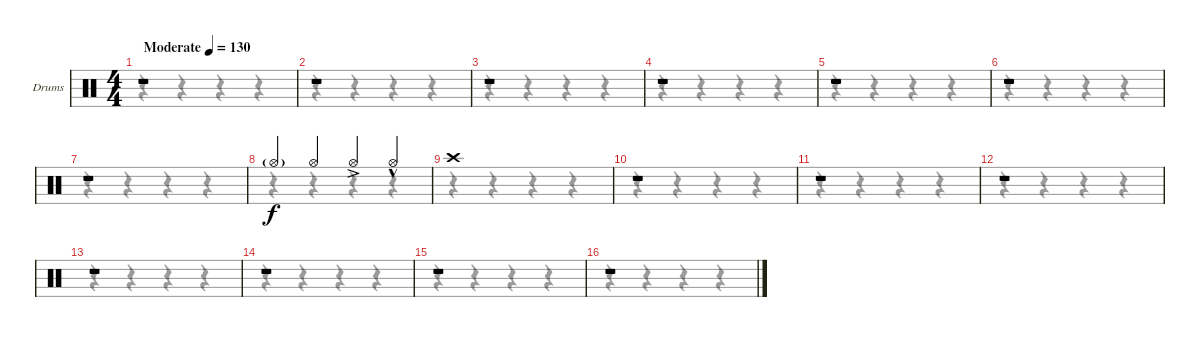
\bracketExtendMode groupsimilarinstruments
\firstSystemTrackNameOrientation horizontal
\otherSystemsTrackNameOrientation horizontal
\track ("Drumkit" "Drums") {instrument percussion}
\staff {score}
\articulation defaults
\voice
\ts (4 4)
\beaming (8 2 2 2 2)
\tempo (130 "Moderate")
\clef neutral
\ks c
r.1{dy f} |
r.1 |
r.1 |
r.1 |
r.1 |
r.1 |
r.1 |
"Hi-Hat (open)"{g}.4 "Hi-Hat (open)".4 "Hi-Hat (open)"{ac}.4 "Hi-Hat (open)"{hac}.4 |
"Crash high (hit)".1 |
r.1 |
r.1 |
r.1 |
r.1 |
r.1 |
r.1 |
r.1
\voice
\clef neutral
\ottava regular
\simile none
\ks c
r.4{dy mf} r.4 r.4 r.4 |
r.4 r.4 r.4 r.4 |
r.4 r.4 r.4 r.4 |
r.4 r.4 r.4 r.4 |
r.4 r.4 r.4 r.4 |
r.4 r.4 r.4 r.4 |
r.4 r.4 r.4 r.4 |
r.4 r.4 r.4 r.4 |
r.4 r.4 r.4 r.4 |
r.4 r.4 r.4 r.4 |
r.4 r.4 r.4 r.4 |
r.4 r.4 r.4 r.4 |
r.4 r.4 r.4 r.4 |
r.4 r.4 r.4 r.4 |
r.4 r.4 r.4 r.4 |
r.4 r.4 r.4 r.4
